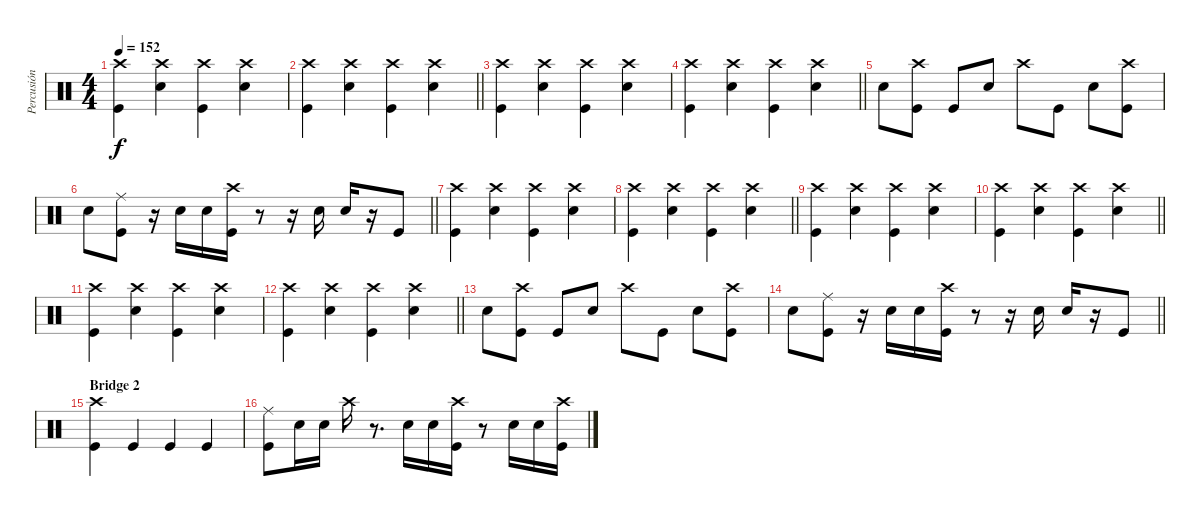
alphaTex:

\track ("Percusión" "Percusión") {instrument percussion}
\staff {score}
\articulation defaults
\ts (4 4)
\tempo 152
\clef neutral
\ks c
("Crash high (hit)" "Kick (hit)").4{dy f} ("Snare (hit) 2" "Crash high (hit)").4 ("Crash high (hit)" "Kick (hit)").4 ("Crash high (hit)" "Snare (hit) 2").4 |
\barLineRight lightlight
("Crash high (hit)" "Kick (hit)").4 ("Crash high (hit)" "Snare (hit) 2").4 ("Crash high (hit)" "Kick (hit)").4 ("Crash high (hit)" "Snare (hit) 2").4 |
("Crash high (hit)" "Kick (hit)").4 ("Crash high (hit)" "Snare (hit) 2").4 ("Crash high (hit)" "Kick (hit)").4 ("Crash high (hit)" "Snare (hit) 2").4 |
\barLineRight lightlight
("Crash high (hit)" "Kick (hit)").4 ("Crash high (hit)" "Snare (hit) 2").4 ("Crash high (hit)" "Kick (hit)").4 ("Crash high (hit)" "Snare (hit) 2").4 |
"Snare (hit) 2".8 ("Kick (hit)" "Crash high (hit)").8 "Kick (hit)".8 "Snare (hit) 2".8 "Crash high (hit)".8 "Kick (hit)".8 "Snare (hit) 2".8 ("Kick (hit)" "Crash high (hit)").8 |
\barLineRight lightlight "Snare (hit) 2".8
("Kick (hit)" "Ride (middle)").8 r.16 "Snare (hit) 2".16 "Snare (hit) 2".16 ("Kick (hit)" "Crash high (hit)").16 r.8 r.16 "Snare (hit) 2".16 "Snare (hit) 2".16 r.16 "Kick (hit)".8 |
("Crash high (hit)" "Kick (hit)").4 ("Snare (hit) 2" "Crash high (hit)").4 ("Crash high (hit)" "Kick (hit)").4 ("Crash high (hit)" "Snare (hit) 2").4 |
\barLineRight lightlight
("Crash high (hit)" "Kick (hit)").4 ("Crash high (hit)" "Snare (hit) 2").4 ("Crash high (hit)" "Kick (hit)").4 ("Crash high (hit)" "Snare (hit) 2").4 |
("Crash high (hit)" "Kick (hit)").4 ("Crash high (hit)" "Snare (hit) 2").4 ("Crash high (hit)" "Kick (hit)").4 ("Crash high (hit)" "Snare (hit) 2").4 |
\barLineRight lightlight
("Crash high (hit)" "Kick (hit)").4 ("Crash high (hit)" "Snare (hit) 2").4 ("Crash high (hit)" "Kick (hit)").4 ("Crash high (hit)" "Snare (hit) 2").4 |
("Kick (hit)" "Crash high (hit)").4 ("Crash high (hit)" "Snare (hit) 2").4 ("Crash high (hit)" "Kick (hit)").4 ("Crash high (hit)" "Snare (hit) 2").4 |
\barLineRight lightlight
("Crash high (hit)" "Kick (hit)").4 ("Crash high (hit)" "Snare (hit) 2").4 ("Crash high (hit)" "Kick (hit)").4 ("Crash high (hit)" "Snare (hit) 2").4 |
"Snare (hit) 2".8 ("Kick (hit)" "Crash high (hit)").8 "Kick (hit)".8 "Snare (hit) 2".8 "Crash high (hit)".8 "Kick (hit)".8 "Snare (hit) 2".8 ("Kick (hit)" "Crash high (hit)").8 |
\barLineRight lightlight "Snare (hit) 2".8
("Kick (hit)" "Ride (middle)").8 r.16 "Snare (hit) 2".16 "Snare (hit) 2".16 ("Kick (hit)" "Crash high (hit)").16 r.8 r.16 "Snare (hit) 2".16 "Snare (hit) 2".16 r.16 "Kick (hit)".8 |
\section ("" "Bridge 2")
("Crash high (hit)" "Kick (hit)").4 "Kick (hit)".4 "Kick (hit)".4 "Kick (hit)".4 |
("Kick (hit)" "Ride (middle)").8 "Snare (hit) 2".16 "Snare (hit) 2".16 "Crash high (hit)".16 r.8{d} "Snare (hit) 2".16 "Snare (hit) 2".16 ("Kick (hit)" "Crash high (hit)").16 r.8 "Snare (hit) 2".16 "Snare (hit) 2".16 ("Kick (hit)" "Crash high (hit)").16
